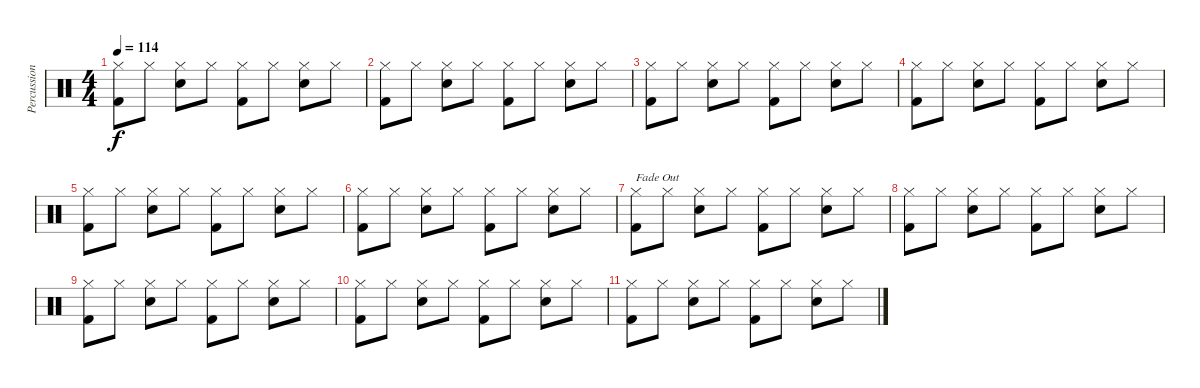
\track ("Percussion" "Percussion") {instrument percussion}
\staff {score}
\articulation defaults
\ts (4 4)
\tempo 114
\clef neutral
\ks c
("Hi-Hat (closed)" "Kick (hit) 2").8{dy f} "Hi-Hat (closed)".8 ("Hi-Hat (closed)" "Snare (hit) 2").8 "Hi-Hat (closed)".8 ("Hi-Hat (closed)" "Kick (hit) 2").8 "Hi-Hat (closed)".8 ("Hi-Hat (closed)" "Snare (hit) 2").8 "Hi-Hat (closed)".8 |
("Hi-Hat (closed)" "Kick (hit) 2").8 "Hi-Hat (closed)".8 ("Hi-Hat (closed)" "Snare (hit) 2").8 "Hi-Hat (closed)".8 ("Hi-Hat (closed)" "Kick (hit) 2").8 "Hi-Hat (closed)".8 ("Hi-Hat (closed)" "Snare (hit) 2").8 "Hi-Hat (closed)".8 |
("Hi-Hat (closed)" "Kick (hit) 2").8 "Hi-Hat (closed)".8 ("Hi-Hat (closed)" "Snare (hit) 2").8 "Hi-Hat (closed)".8 ("Hi-Hat (closed)" "Kick (hit) 2").8 "Hi-Hat (closed)".8 ("Hi-Hat (closed)" "Snare (hit) 2").8 "Hi-Hat (closed)".8 |
("Hi-Hat (closed)" "Kick (hit) 2").8 "Hi-Hat (closed)".8 ("Hi-Hat (closed)" "Snare (hit) 2").8 "Hi-Hat (closed)".8 ("Hi-Hat (closed)" "Kick (hit) 2").8 "Hi-Hat (closed)".8 ("Hi-Hat (closed)" "Snare (hit) 2").8 "Hi-Hat (closed)".8 |
("Hi-Hat (closed)" "Kick (hit) 2").8 "Hi-Hat (closed)".8 ("Hi-Hat (closed)" "Snare (hit) 2").8 "Hi-Hat (closed)".8 ("Hi-Hat (closed)" "Kick (hit) 2").8 "Hi-Hat (closed)".8 ("Hi-Hat (closed)" "Snare (hit) 2").8 "Hi-Hat (closed)".8 |
("Hi-Hat (closed)" "Kick (hit) 2").8 "Hi-Hat (closed)".8 ("Hi-Hat (closed)" "Snare (hit) 2").8 "Hi-Hat (closed)".8 ("Hi-Hat (closed)" "Kick (hit) 2").8 "Hi-Hat (closed)".8 ("Hi-Hat (closed)" "Snare (hit) 2").8 "Hi-Hat (closed)".8 |
("Hi-Hat (closed)" "Kick (hit) 2").8{txt "Fade Out" volume 0} "Hi-Hat (closed)".8 ("Hi-Hat (closed)" "Snare (hit) 2").8 "Hi-Hat (closed)".8 ("Hi-Hat (closed)" "Kick (hit) 2").8 "Hi-Hat (closed)".8 ("Hi-Hat (closed)" "Snare (hit) 2").8 "Hi-Hat (closed)".8 |
("Hi-Hat (closed)" "Kick (hit) 2").8 "Hi-Hat (closed)".8 ("Hi-Hat (closed)" "Snare (hit) 2").8 "Hi-Hat (closed)".8 ("Hi-Hat (closed)" "Kick (hit) 2").8 "Hi-Hat (closed)".8 ("Hi-Hat (closed)" "Snare (hit) 2").8 "Hi-Hat (closed)".8 |
("Hi-Hat (closed)" "Kick (hit) 2").8 "Hi-Hat (closed)".8 ("Hi-Hat (closed)" "Snare (hit) 2").8 "Hi-Hat (closed)".8 ("Hi-Hat (closed)" "Kick (hit) 2").8 "Hi-Hat (closed)".8 ("Hi-Hat (closed)" "Snare (hit) 2").8 "Hi-Hat (closed)".8 |
("Hi-Hat (closed)" "Kick (hit) 2").8 "Hi-Hat (closed)".8 ("Hi-Hat (closed)" "Snare (hit) 2").8 "Hi-Hat (closed)".8 ("Hi-Hat (closed)" "Kick (hit) 2").8 "Hi-Hat (closed)".8 ("Hi-Hat (closed)" "Snare (hit) 2").8 "Hi-Hat (closed)".8 |
("Hi-Hat (closed)" "Kick (hit) 2").8 "Hi-Hat (closed)".8 ("Hi-Hat (closed)" "Snare (hit) 2").8 "Hi-Hat (closed)".8 ("Hi-Hat (closed)" "Kick (hit) 2").8 "Hi-Hat (closed)".8 ("Hi-Hat (closed)" "Snare (hit) 2").8 "Hi-Hat (closed)".8
